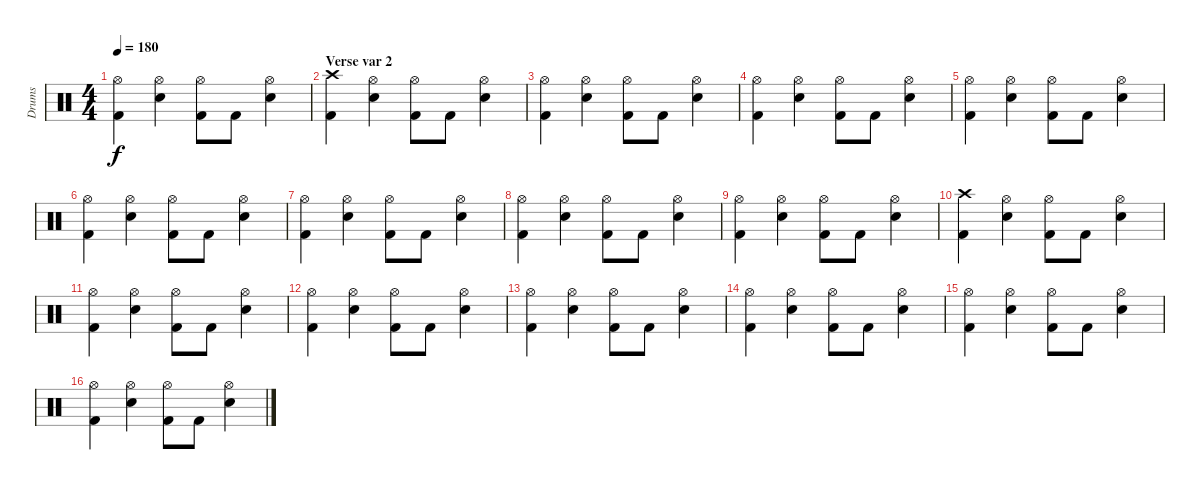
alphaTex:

\track ("Drums" "Drums") {instrument percussion}
\staff {score}
\articulation defaults
\ts (4 4)
\tempo 180
\clef neutral
\ks c
("Hi-Hat (open)" "Kick (hit) 2").4{dy f} ("Hi-Hat (open)" "Electric Snare (hit)").4 ("Hi-Hat (open)" "Kick (hit) 2").8 "Kick (hit) 2".8 ("Hi-Hat (open)" "Electric Snare (hit)").4 |
\section ("" "Verse var 2")
("Crash high (hit)" "Kick (hit) 2").4 ("Hi-Hat (open)" "Electric Snare (hit)").4 ("Hi-Hat (open)" "Kick (hit) 2").8 "Kick (hit) 2".8 ("Hi-Hat (open)" "Electric Snare (hit)").4 |
("Hi-Hat (open)" "Kick (hit) 2").4 ("Hi-Hat (open)" "Electric Snare (hit)").4 ("Hi-Hat (open)" "Kick (hit) 2").8 "Kick (hit) 2".8 ("Hi-Hat (open)" "Electric Snare (hit)").4 |
("Hi-Hat (open)" "Kick (hit) 2").4 ("Hi-Hat (open)" "Electric Snare (hit)").4 ("Hi-Hat (open)" "Kick (hit) 2").8 "Kick (hit) 2".8 ("Hi-Hat (open)" "Electric Snare (hit)").4 |
("Hi-Hat (open)" "Kick (hit) 2").4 ("Hi-Hat (open)" "Electric Snare (hit)").4 ("Hi-Hat (open)" "Kick (hit) 2").8 "Kick (hit) 2".8 ("Hi-Hat (open)" "Electric Snare (hit)").4 |
("Hi-Hat (open)" "Kick (hit) 2").4 ("Hi-Hat (open)" "Electric Snare (hit)").4 ("Hi-Hat (open)" "Kick (hit) 2").8 "Kick (hit) 2".8 ("Hi-Hat (open)" "Electric Snare (hit)").4 |
("Hi-Hat (open)" "Kick (hit) 2").4 ("Hi-Hat (open)" "Electric Snare (hit)").4 ("Hi-Hat (open)" "Kick (hit) 2").8 "Kick (hit) 2".8 ("Hi-Hat (open)" "Electric Snare (hit)").4 |
("Hi-Hat (open)" "Kick (hit) 2").4 ("Hi-Hat (open)" "Electric Snare (hit)").4 ("Hi-Hat (open)" "Kick (hit) 2").8 "Kick (hit) 2".8 ("Hi-Hat (open)" "Electric Snare (hit)").4 |
("Hi-Hat (open)" "Kick (hit) 2").4 ("Hi-Hat (open)" "Electric Snare (hit)").4 ("Hi-Hat (open)" "Kick (hit) 2").8 "Kick (hit) 2".8 ("Hi-Hat (open)" "Electric Snare (hit)").4 |
("Crash high (hit)" "Kick (hit) 2").4 ("Hi-Hat (open)" "Electric Snare (hit)").4 ("Hi-Hat (open)" "Kick (hit) 2").8 "Kick (hit) 2".8 ("Hi-Hat (open)" "Electric Snare (hit)").4 |
("Hi-Hat (open)" "Kick (hit) 2").4 ("Hi-Hat (open)" "Electric Snare (hit)").4 ("Hi-Hat (open)" "Kick (hit) 2").8 "Kick (hit) 2".8 ("Hi-Hat (open)" "Electric Snare (hit)").4 |
("Hi-Hat (open)" "Kick (hit) 2").4 ("Hi-Hat (open)" "Electric Snare (hit)").4 ("Hi-Hat (open)" "Kick (hit) 2").8 "Kick (hit) 2".8 ("Hi-Hat (open)" "Electric Snare (hit)").4 |
("Hi-Hat (open)" "Kick (hit) 2").4 ("Hi-Hat (open)" "Electric Snare (hit)").4 ("Hi-Hat (open)" "Kick (hit) 2").8 "Kick (hit) 2".8 ("Hi-Hat (open)" "Electric Snare (hit)").4 |
("Hi-Hat (open)" "Kick (hit) 2").4 ("Hi-Hat (open)" "Electric Snare (hit)").4 ("Hi-Hat (open)" "Kick (hit) 2").8 "Kick (hit) 2".8 ("Hi-Hat (open)" "Electric Snare (hit)").4 |
("Hi-Hat (open)" "Kick (hit) 2").4 ("Hi-Hat (open)" "Electric Snare (hit)").4 ("Hi-Hat (open)" "Kick (hit) 2").8 "Kick (hit) 2".8 ("Hi-Hat (open)" "Electric Snare (hit)").4 |
("Hi-Hat (open)" "Kick (hit) 2").4 ("Hi-Hat (open)" "Electric Snare (hit)").4 ("Hi-Hat (open)" "Kick (hit) 2").8 "Kick (hit) 2".8 ("Hi-Hat (open)" "Electric Snare (hit)").4
